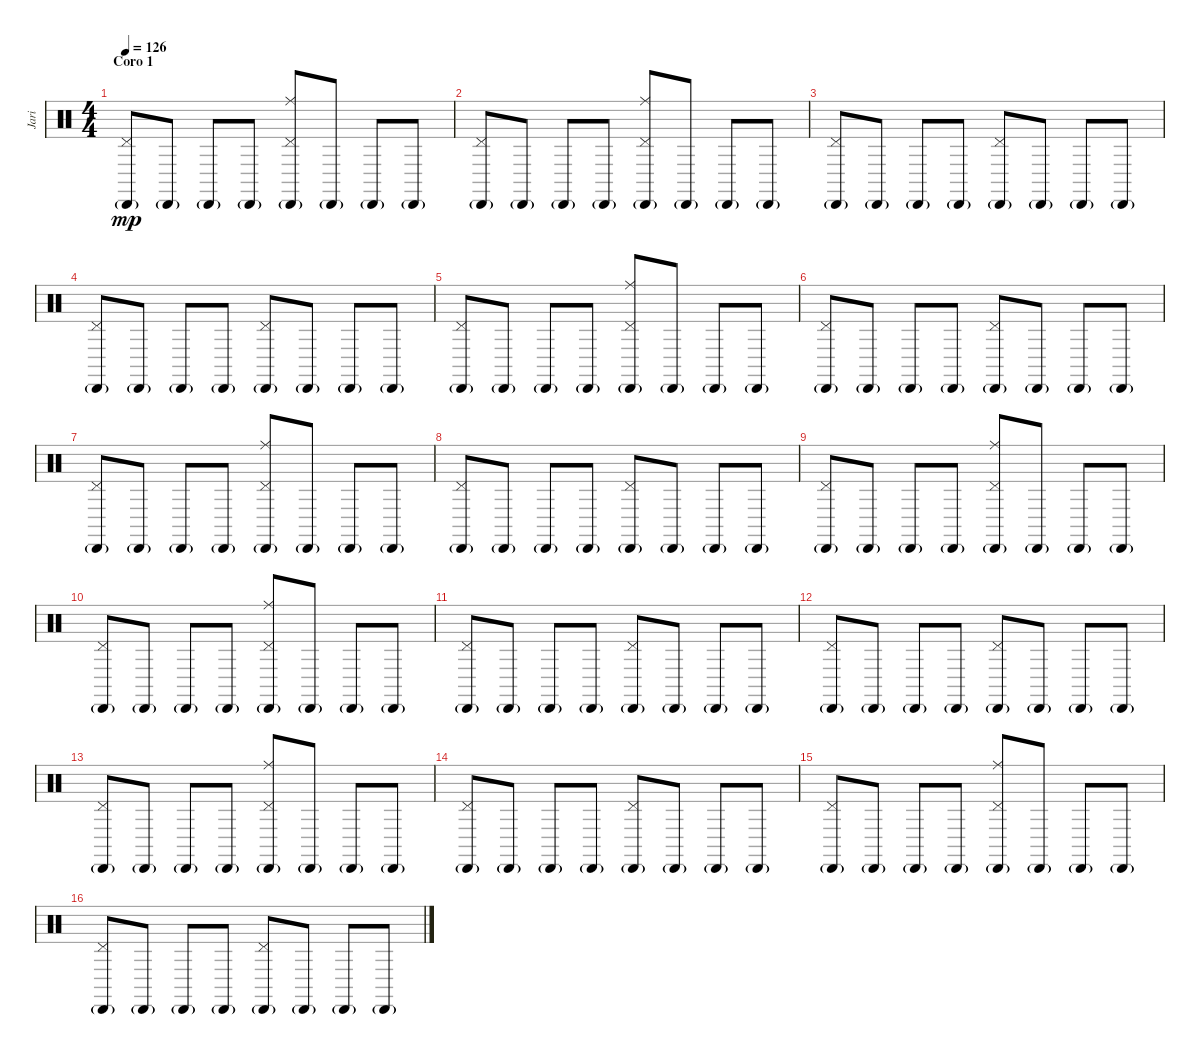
\track ("Jari" "Jari") {instrument percussion}
\staff {score}
\articulation defaults
\ts (4 4)
\section ("" "Coro 1")
\tempo 126
\clef neutral
\ks c
("Pedal Hi-Hat (hit)" "Cabasa (hit)"{g}).8{dy mp} "Cabasa (hit)"{g}.8 "Cabasa (hit)"{g}.8 "Cabasa (hit)"{g}.8 ("Pedal Hi-Hat (hit)" "Cabasa (hit)"{g} "Ride (middle)").8 "Cabasa (hit)"{g}.8 "Cabasa (hit)"{g}.8 "Cabasa (hit)"{g}.8 |
("Pedal Hi-Hat (hit)" "Cabasa (hit)"{g}).8 "Cabasa (hit)"{g}.8 "Cabasa (hit)"{g}.8 "Cabasa (hit)"{g}.8 ("Pedal Hi-Hat (hit)" "Cabasa (hit)"{g} "Ride (middle)").8 "Cabasa (hit)"{g}.8 "Cabasa (hit)"{g}.8 "Cabasa (hit)"{g}.8 |
("Pedal Hi-Hat (hit)" "Cabasa (hit)"{g}).8 "Cabasa (hit)"{g}.8 "Cabasa (hit)"{g}.8 "Cabasa (hit)"{g}.8 ("Pedal Hi-Hat (hit)" "Cabasa (hit)"{g}).8 "Cabasa (hit)"{g}.8 "Cabasa (hit)"{g}.8 "Cabasa (hit)"{g}.8 |
("Pedal Hi-Hat (hit)" "Cabasa (hit)"{g}).8 "Cabasa (hit)"{g}.8 "Cabasa (hit)"{g}.8 "Cabasa (hit)"{g}.8 ("Pedal Hi-Hat (hit)" "Cabasa (hit)"{g}).8 "Cabasa (hit)"{g}.8 "Cabasa (hit)"{g}.8 "Cabasa (hit)"{g}.8 |
("Pedal Hi-Hat (hit)" "Cabasa (hit)"{g}).8 "Cabasa (hit)"{g}.8 "Cabasa (hit)"{g}.8 "Cabasa (hit)"{g}.8 ("Pedal Hi-Hat (hit)" "Cabasa (hit)"{g} "Ride (middle)").8 "Cabasa (hit)"{g}.8 "Cabasa (hit)"{g}.8 "Cabasa (hit)"{g}.8 |
("Pedal Hi-Hat (hit)" "Cabasa (hit)"{g}).8 "Cabasa (hit)"{g}.8 "Cabasa (hit)"{g}.8 "Cabasa (hit)"{g}.8 ("Pedal Hi-Hat (hit)" "Cabasa (hit)"{g}).8 "Cabasa (hit)"{g}.8 "Cabasa (hit)"{g}.8 "Cabasa (hit)"{g}.8 |
("Pedal Hi-Hat (hit)" "Cabasa (hit)"{g}).8 "Cabasa (hit)"{g}.8 "Cabasa (hit)"{g}.8 "Cabasa (hit)"{g}.8 ("Pedal Hi-Hat (hit)" "Cabasa (hit)"{g} "Ride (middle)").8 "Cabasa (hit)"{g}.8 "Cabasa (hit)"{g}.8 "Cabasa (hit)"{g}.8 |
("Pedal Hi-Hat (hit)" "Cabasa (hit)"{g}).8 "Cabasa (hit)"{g}.8 "Cabasa (hit)"{g}.8 "Cabasa (hit)"{g}.8 ("Pedal Hi-Hat (hit)" "Cabasa (hit)"{g}).8 "Cabasa (hit)"{g}.8 "Cabasa (hit)"{g}.8 "Cabasa (hit)"{g}.8 |
("Pedal Hi-Hat (hit)" "Cabasa (hit)"{g}).8 "Cabasa (hit)"{g}.8 "Cabasa (hit)"{g}.8 "Cabasa (hit)"{g}.8 ("Pedal Hi-Hat (hit)" "Cabasa (hit)"{g} "Ride (middle)").8 "Cabasa (hit)"{g}.8 "Cabasa (hit)"{g}.8 "Cabasa (hit)"{g}.8 |
("Pedal Hi-Hat (hit)" "Cabasa (hit)"{g}).8 "Cabasa (hit)"{g}.8 "Cabasa (hit)"{g}.8 "Cabasa (hit)"{g}.8 ("Pedal Hi-Hat (hit)" "Cabasa (hit)"{g} "Ride (middle)").8 "Cabasa (hit)"{g}.8 "Cabasa (hit)"{g}.8 "Cabasa (hit)"{g}.8 |
("Pedal Hi-Hat (hit)" "Cabasa (hit)"{g}).8 "Cabasa (hit)"{g}.8 "Cabasa (hit)"{g}.8 "Cabasa (hit)"{g}.8 ("Pedal Hi-Hat (hit)" "Cabasa (hit)"{g}).8 "Cabasa (hit)"{g}.8 "Cabasa (hit)"{g}.8 "Cabasa (hit)"{g}.8 |
("Pedal Hi-Hat (hit)" "Cabasa (hit)"{g}).8 "Cabasa (hit)"{g}.8 "Cabasa (hit)"{g}.8 "Cabasa (hit)"{g}.8 ("Pedal Hi-Hat (hit)" "Cabasa (hit)"{g}).8 "Cabasa (hit)"{g}.8 "Cabasa (hit)"{g}.8 "Cabasa (hit)"{g}.8 |
("Pedal Hi-Hat (hit)" "Cabasa (hit)"{g}).8 "Cabasa (hit)"{g}.8 "Cabasa (hit)"{g}.8 "Cabasa (hit)"{g}.8 ("Pedal Hi-Hat (hit)" "Cabasa (hit)"{g} "Ride (middle)").8 "Cabasa (hit)"{g}.8 "Cabasa (hit)"{g}.8 "Cabasa (hit)"{g}.8 |
("Pedal Hi-Hat (hit)" "Cabasa (hit)"{g}).8 "Cabasa (hit)"{g}.8 "Cabasa (hit)"{g}.8 "Cabasa (hit)"{g}.8 ("Pedal Hi-Hat (hit)" "Cabasa (hit)"{g}).8 "Cabasa (hit)"{g}.8 "Cabasa (hit)"{g}.8 "Cabasa (hit)"{g}.8 |
("Pedal Hi-Hat (hit)" "Cabasa (hit)"{g}).8 "Cabasa (hit)"{g}.8 "Cabasa (hit)"{g}.8 "Cabasa (hit)"{g}.8 ("Pedal Hi-Hat (hit)" "Cabasa (hit)"{g} "Ride (middle)").8 "Cabasa (hit)"{g}.8 "Cabasa (hit)"{g}.8 "Cabasa (hit)"{g}.8 |
("Pedal Hi-Hat (hit)" "Cabasa (hit)"{g}).8 "Cabasa (hit)"{g}.8 "Cabasa (hit)"{g}.8 "Cabasa (hit)"{g}.8 ("Pedal Hi-Hat (hit)" "Cabasa (hit)"{g}).8 "Cabasa (hit)"{g}.8 "Cabasa (hit)"{g}.8 "Cabasa (hit)"{g}.8
